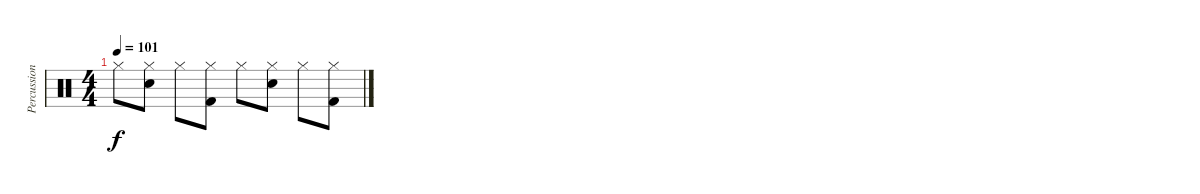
\track ("Percussions" "Percussion") {instrument percussion}
\staff {score}
\articulation defaults
\ts (4 4)
\tempo 101
\clef neutral
\ks c "Hi-Hat (closed)".8{dy f}
("Hi-Hat (closed)" "Electric Snare (hit)").8 "Hi-Hat (closed)".8 ("Hi-Hat (closed)" "Kick (hit) 2").8 "Hi-Hat (closed)".8 ("Hi-Hat (closed)" "Electric Snare (hit)").8 "Hi-Hat (closed)".8 ("Hi-Hat (closed)" "Kick (hit) 2").8
